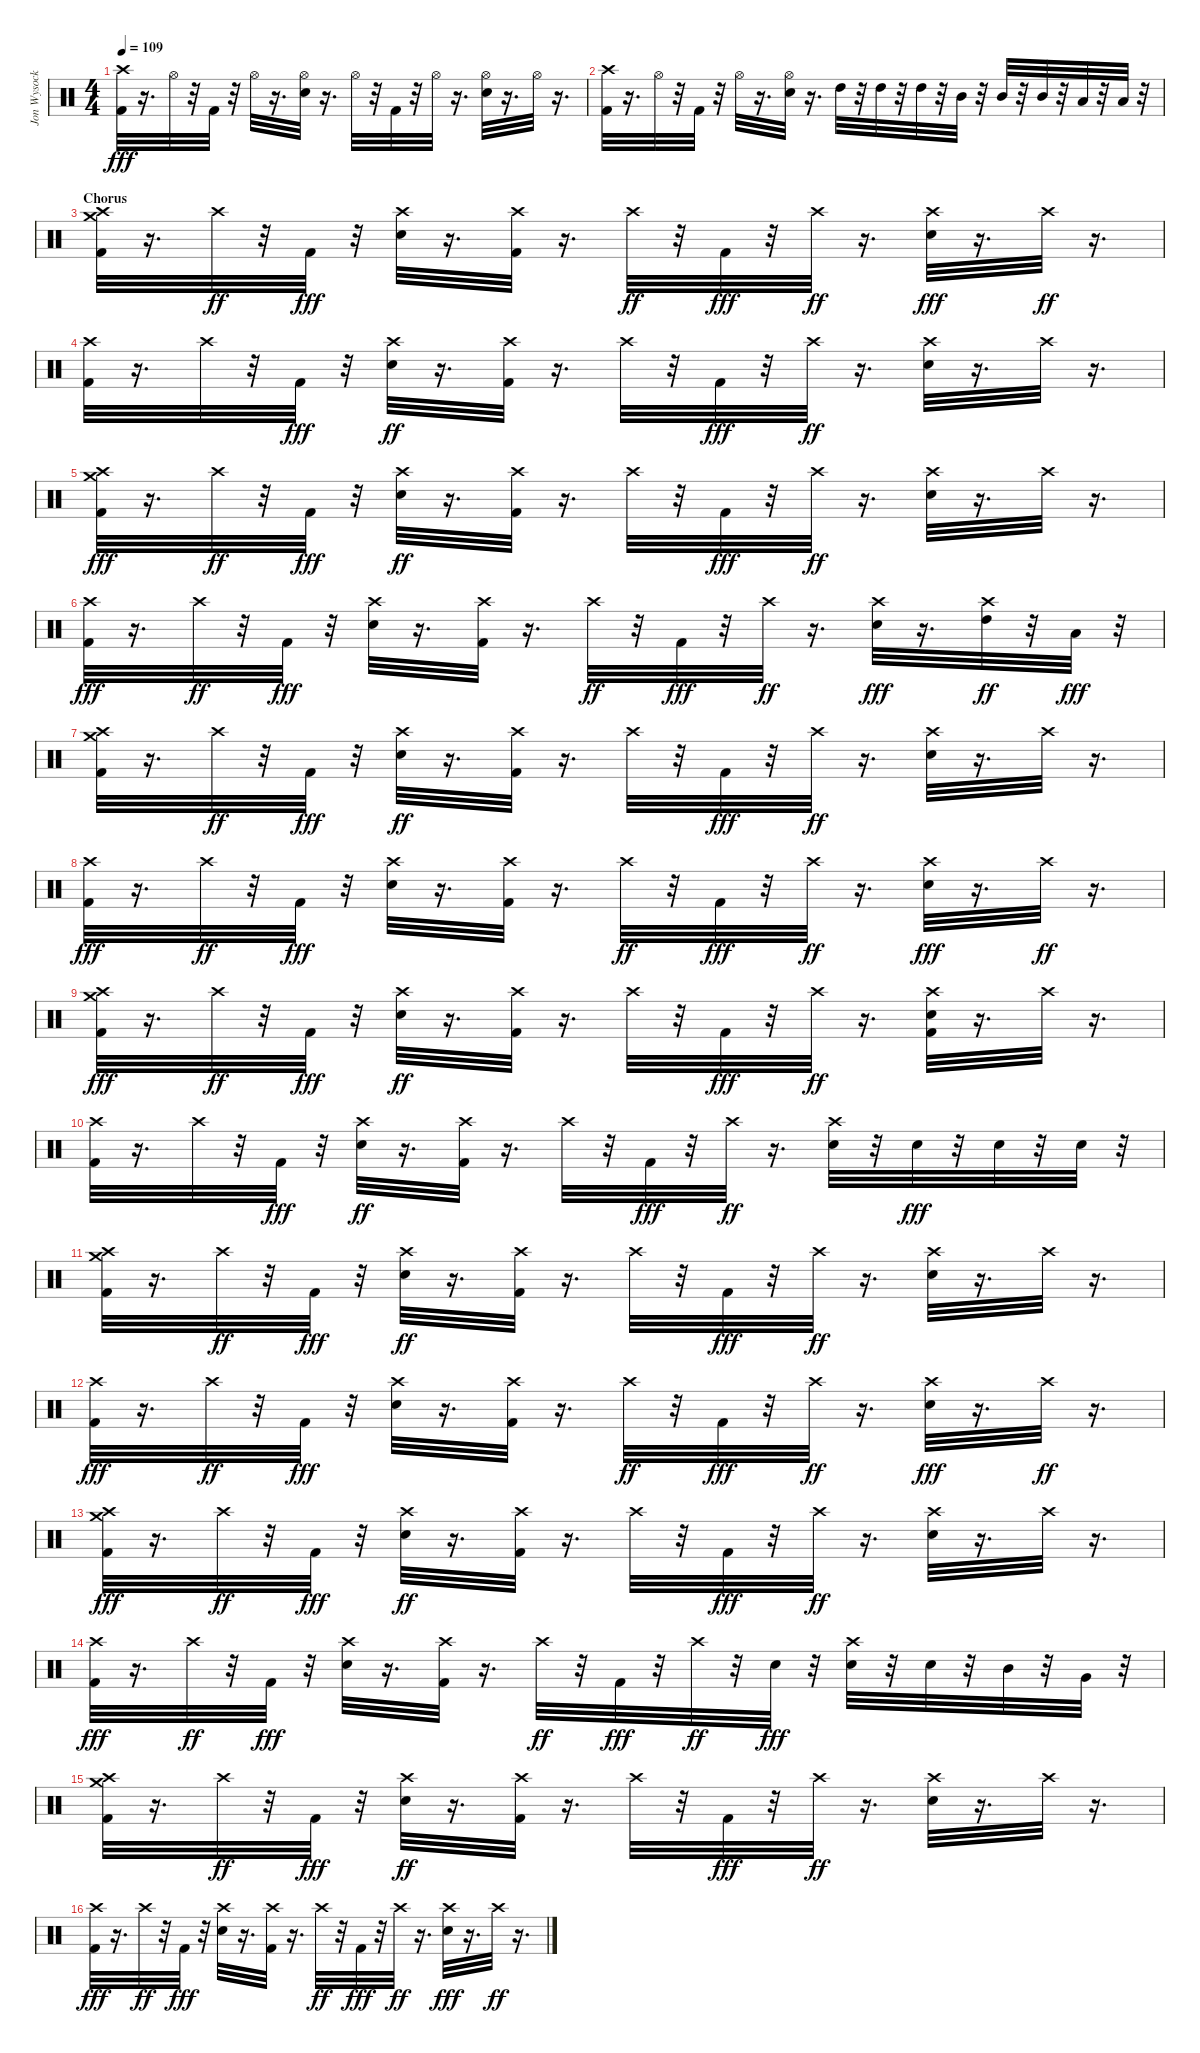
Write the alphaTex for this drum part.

\track ("Jon Wysocki - Drums" "Jon Wysock") {instrument percussion}
\staff {score}
\articulation defaults
\ts (4 4)
\tempo 109
\clef neutral
\ks c
("Crash high (hit)" "Kick (hit) 2").32{dy fff} r.16{d} "Hi-Hat (open)".32 r.32 "Kick (hit) 2".32 r.32 "Hi-Hat (open)".32 r.16{d} ("Hi-Hat (open)" "Electric Snare (hit)").32 r.16{d} "Hi-Hat (open)".32 r.32 "Kick (hit) 2".32 r.32 "Hi-Hat (open)".32 r.16{d} ("Hi-Hat (open)" "Electric Snare (hit)").32 r.16{d} "Hi-Hat (open)".32 r.16{d} |
("Kick (hit) 2" "Crash high (hit)").32 r.16{d} "Hi-Hat (open)".32 r.32 "Kick (hit) 2".32 r.32 "Hi-Hat (open)".32 r.16{d} ("Hi-Hat (open)" "Electric Snare (hit)").32 r.16{d} "High Tom (hit)".32 r.32 "High Tom (hit)".32 r.32 "High Tom (hit)".32 r.32 "Mid Tom (hit)".32 r.32 "Mid Tom (hit)".32 r.32 "Mid Tom (hit)".32 r.32 "Low Tom (hit)".32 r.32 "Low Tom (hit)".32 r.32 |
\section ("" "Chorus")
("Crash medium (hit)" "Crash high (hit)" "Kick (hit) 2").32 r.16{d} "Crash high (hit)".32{dy ff} r.32 "Kick (hit) 2".32{dy fff} r.32 ("Crash high (hit)" "Electric Snare (hit)").32 r.16{d} ("Crash high (hit)" "Kick (hit) 2").32 r.16{d} "Crash high (hit)".32{dy ff} r.32 "Kick (hit) 2".32{dy fff} r.32 "Crash high (hit)".32{dy ff} r.16{d} ("Crash high (hit)" "Electric Snare (hit)").32{dy fff} r.16{d} "Crash high (hit)".32{dy ff} r.16{d} |
("Kick (hit) 2" "Crash high (hit)").32 r.16{d} "Crash high (hit)".32 r.32 "Kick (hit) 2".32{dy fff} r.32 ("Electric Snare (hit)" "Crash high (hit)").32{dy ff} r.16{d} ("Kick (hit) 2" "Crash high (hit)").32 r.16{d} "Crash high (hit)".32 r.32 "Kick (hit) 2".32{dy fff} r.32 "Crash high (hit)".32{dy ff} r.16{d} ("Electric Snare (hit)" "Crash high (hit)").32 r.16{d} "Crash high (hit)".32 r.16{d} |
("Kick (hit) 2" "Crash high (hit)" "Crash medium (hit)").32{dy fff} r.16{d} "Crash high (hit)".32{dy ff} r.32 "Kick (hit) 2".32{dy fff} r.32 ("Electric Snare (hit)" "Crash high (hit)").32{dy ff} r.16{d} ("Kick (hit) 2" "Crash high (hit)").32 r.16{d} "Crash high (hit)".32 r.32 "Kick (hit) 2".32{dy fff} r.32 "Crash high (hit)".32{dy ff} r.16{d} ("Electric Snare (hit)" "Crash high (hit)").32 r.16{d} "Crash high (hit)".32 r.16{d} |
("Crash high (hit)" "Kick (hit) 2").32{dy fff} r.16{d} "Crash high (hit)".32{dy ff} r.32 "Kick (hit) 2".32{dy fff} r.32 ("Crash high (hit)" "Electric Snare (hit)").32 r.16{d} ("Crash high (hit)" "Kick (hit) 2").32 r.16{d} "Crash high (hit)".32{dy ff} r.32 "Kick (hit) 2".32{dy fff} r.32 "Crash high (hit)".32{dy ff} r.16{d} ("Crash high (hit)" "Electric Snare (hit)").32{dy fff} r.16{d} ("High Tom (hit)" "Crash high (hit)").32{dy ff} r.32 "Low Tom (hit)".32{dy fff} r.32 |
("Kick (hit) 2" "Crash high (hit)" "Crash medium (hit)").32 r.16{d} "Crash high (hit)".32{dy ff} r.32 "Kick (hit) 2".32{dy fff} r.32 ("Electric Snare (hit)" "Crash high (hit)").32{dy ff} r.16{d} ("Kick (hit) 2" "Crash high (hit)").32 r.16{d} "Crash high (hit)".32 r.32 "Kick (hit) 2".32{dy fff} r.32 "Crash high (hit)".32{dy ff} r.16{d} ("Electric Snare (hit)" "Crash high (hit)").32 r.16{d} "Crash high (hit)".32 r.16{d} |
("Crash high (hit)" "Kick (hit) 2").32{dy fff} r.16{d} "Crash high (hit)".32{dy ff} r.32 "Kick (hit) 2".32{dy fff} r.32 ("Crash high (hit)" "Electric Snare (hit)").32 r.16{d} ("Crash high (hit)" "Kick (hit) 2").32 r.16{d} "Crash high (hit)".32{dy ff} r.32 "Kick (hit) 2".32{dy fff} r.32 "Crash high (hit)".32{dy ff} r.16{d} ("Crash high (hit)" "Electric Snare (hit)").32{dy fff} r.16{d} "Crash high (hit)".32{dy ff} r.16{d} |
("Kick (hit) 2" "Crash high (hit)" "Crash medium (hit)").32{dy fff} r.16{d} "Crash high (hit)".32{dy ff} r.32 "Kick (hit) 2".32{dy fff} r.32 ("Electric Snare (hit)" "Crash high (hit)").32{dy ff} r.16{d} ("Kick (hit) 2" "Crash high (hit)").32 r.16{d} "Crash high (hit)".32 r.32 "Kick (hit) 2".32{dy fff} r.32 "Crash high (hit)".32{dy ff} r.16{d} ("Kick (hit) 2" "Electric Snare (hit)" "Crash high (hit)").32 r.16{d} "Crash high (hit)".32 r.16{d} |
("Kick (hit) 2" "Crash high (hit)").32 r.16{d} "Crash high (hit)".32 r.32 "Kick (hit) 2".32{dy fff} r.32 ("Electric Snare (hit)" "Crash high (hit)").32{dy ff} r.16{d} ("Kick (hit) 2" "Crash high (hit)").32 r.16{d} "Crash high (hit)".32 r.32 "Kick (hit) 2".32{dy fff} r.32 "Crash high (hit)".32{dy ff} r.16{d} ("Electric Snare (hit)" "Crash high (hit)").32 r.32 "Electric Snare (hit)".32{dy fff} r.32 "Electric Snare (hit)".32 r.32 "Electric Snare (hit)".32 r.32 |
("Kick (hit) 2" "Crash high (hit)" "Crash medium (hit)").32 r.16{d} "Crash high (hit)".32{dy ff} r.32 "Kick (hit) 2".32{dy fff} r.32 ("Electric Snare (hit)" "Crash high (hit)").32{dy ff} r.16{d} ("Kick (hit) 2" "Crash high (hit)").32 r.16{d} "Crash high (hit)".32 r.32 "Kick (hit) 2".32{dy fff} r.32 "Crash high (hit)".32{dy ff} r.16{d} ("Electric Snare (hit)" "Crash high (hit)").32 r.16{d} "Crash high (hit)".32 r.16{d} |
("Crash high (hit)" "Kick (hit) 2").32{dy fff} r.16{d} "Crash high (hit)".32{dy ff} r.32 "Kick (hit) 2".32{dy fff} r.32 ("Crash high (hit)" "Electric Snare (hit)").32 r.16{d} ("Crash high (hit)" "Kick (hit) 2").32 r.16{d} "Crash high (hit)".32{dy ff} r.32 "Kick (hit) 2".32{dy fff} r.32 "Crash high (hit)".32{dy ff} r.16{d} ("Crash high (hit)" "Electric Snare (hit)").32{dy fff} r.16{d} "Crash high (hit)".32{dy ff} r.16{d} |
("Kick (hit) 2" "Crash high (hit)" "Crash medium (hit)").32{dy fff} r.16{d} "Crash high (hit)".32{dy ff} r.32 "Kick (hit) 2".32{dy fff} r.32 ("Electric Snare (hit)" "Crash high (hit)").32{dy ff} r.16{d} ("Kick (hit) 2" "Crash high (hit)").32 r.16{d} "Crash high (hit)".32 r.32 "Kick (hit) 2".32{dy fff} r.32 "Crash high (hit)".32{dy ff} r.16{d} ("Electric Snare (hit)" "Crash high (hit)").32 r.16{d} "Crash high (hit)".32 r.16{d} |
("Crash high (hit)" "Kick (hit) 2").32{dy fff} r.16{d} "Crash high (hit)".32{dy ff} r.32 "Kick (hit) 2".32{dy fff} r.32 ("Crash high (hit)" "Electric Snare (hit)").32 r.16{d} ("Crash high (hit)" "Kick (hit) 2").32 r.16{d} "Crash high (hit)".32{dy ff} r.32 "Kick (hit) 2".32{dy fff} r.32 "Crash high (hit)".32{dy ff} r.32 "Electric Snare (hit)".32{dy fff} r.32 ("Crash high (hit)" "Electric Snare (hit)").32 r.32 "Electric Snare (hit)".32 r.32 "Mid Tom (hit)".32 r.32 "Very Low Tom (hit)".32 r.32 |
("Kick (hit) 2" "Crash high (hit)" "Crash medium (hit)").32 r.16{d} "Crash high (hit)".32{dy ff} r.32 "Kick (hit) 2".32{dy fff} r.32 ("Electric Snare (hit)" "Crash high (hit)").32{dy ff} r.16{d} ("Kick (hit) 2" "Crash high (hit)").32 r.16{d} "Crash high (hit)".32 r.32 "Kick (hit) 2".32{dy fff} r.32 "Crash high (hit)".32{dy ff} r.16{d} ("Electric Snare (hit)" "Crash high (hit)").32 r.16{d} "Crash high (hit)".32 r.16{d} |
("Crash high (hit)" "Kick (hit) 2").32{dy fff} r.16{d} "Crash high (hit)".32{dy ff} r.32 "Kick (hit) 2".32{dy fff} r.32 ("Crash high (hit)" "Electric Snare (hit)").32 r.16{d} ("Crash high (hit)" "Kick (hit) 2").32 r.16{d} "Crash high (hit)".32{dy ff} r.32 "Kick (hit) 2".32{dy fff} r.32 "Crash high (hit)".32{dy ff} r.16{d} ("Crash high (hit)" "Electric Snare (hit)").32{dy fff} r.16{d} "Crash high (hit)".32{dy ff} r.16{d}
